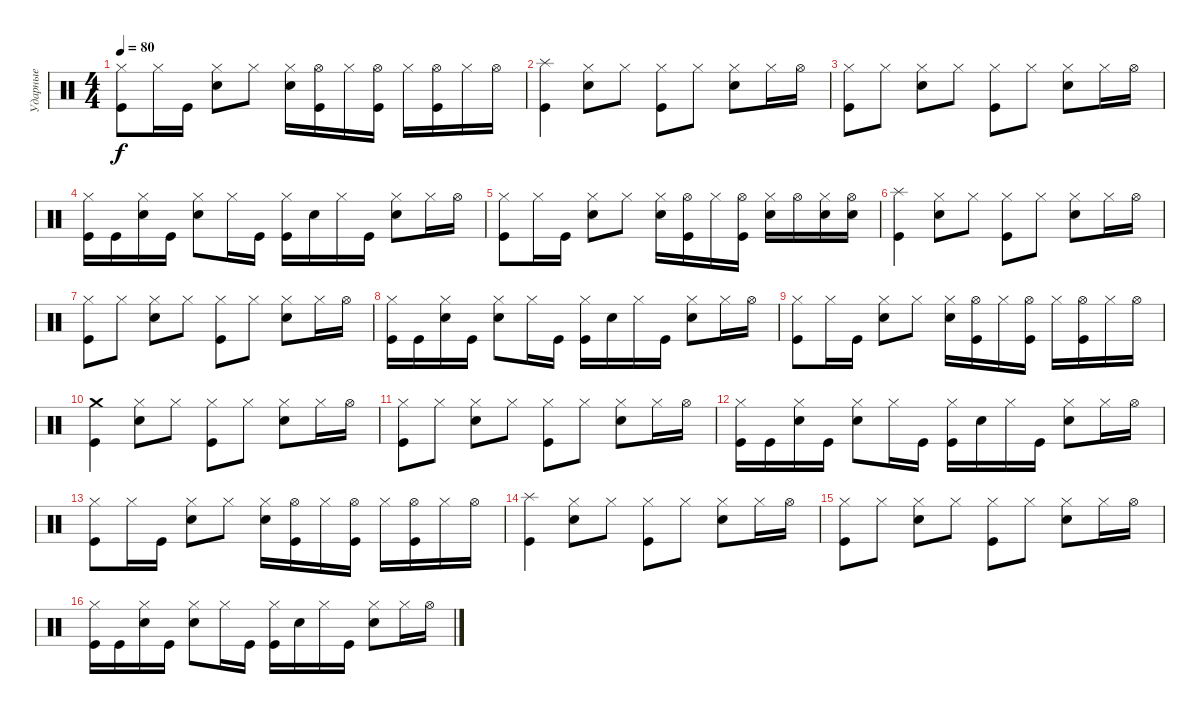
\track ("Ударные" "Ударные") {instrument percussion}
\staff {score}
\articulation defaults
\ts (4 4)
\tempo 80
\clef neutral
\ks c
("Kick (hit)" "Hi-Hat (closed)").8{dy f} "Hi-Hat (closed)".16 "Kick (hit)".16 ("Snare (hit) 2" "Hi-Hat (closed)").8 "Hi-Hat (closed)".8 ("Snare (hit) 2" "Hi-Hat (closed)").16 ("Kick (hit)" "Hi-Hat (open)").16 "Hi-Hat (closed)".16 ("Kick (hit)" "Hi-Hat (open)").16 "Hi-Hat (closed)".16 ("Kick (hit)" "Hi-Hat (open)").16 "Hi-Hat (closed)".16 "Hi-Hat (open)".16 |
("Kick (hit)" "Splash (hit)").4 ("Snare (hit) 2" "Hi-Hat (closed)").8 "Hi-Hat (closed)".8 ("Kick (hit)" "Hi-Hat (closed)").8 "Hi-Hat (closed)".8 ("Snare (hit) 2" "Hi-Hat (closed)").8 "Hi-Hat (closed)".16 "Hi-Hat (open)".16 |
("Kick (hit)" "Hi-Hat (closed)").8 "Hi-Hat (closed)".8 ("Snare (hit) 2" "Hi-Hat (closed)").8 "Hi-Hat (closed)".8 ("Kick (hit)" "Hi-Hat (closed)").8 "Hi-Hat (closed)".8 ("Snare (hit) 2" "Hi-Hat (closed)").8 "Hi-Hat (closed)".16 "Hi-Hat (open)".16 |
("Kick (hit)" "Hi-Hat (closed)").16 "Kick (hit)".16 ("Snare (hit) 2" "Hi-Hat (closed)").16 "Kick (hit)".16 ("Snare (hit) 2" "Hi-Hat (closed)").8 "Hi-Hat (closed)".16 "Kick (hit)".16 ("Kick (hit)" "Hi-Hat (closed)").16 "Snare (hit) 2".16 "Hi-Hat (closed)".16 "Kick (hit)".16 ("Snare (hit) 2" "Hi-Hat (closed)").8 "Hi-Hat (closed)".16 "Hi-Hat (open)".16 |
("Kick (hit)" "Hi-Hat (closed)").8 "Hi-Hat (closed)".16 "Kick (hit)".16 ("Snare (hit) 2" "Hi-Hat (closed)").8 "Hi-Hat (closed)".8 ("Snare (hit) 2" "Hi-Hat (closed)").16 ("Kick (hit)" "Hi-Hat (open)").16 "Hi-Hat (closed)".16 ("Kick (hit)" "Hi-Hat (open)").16 ("Snare (hit) 2" "Hi-Hat (closed)").16 "Hi-Hat (open)".16 ("Snare (hit) 2" "Hi-Hat (closed)").16 ("Snare (hit) 2" "Hi-Hat (open)").16 |
("Kick (hit)" "Splash (hit)").4 ("Snare (hit) 2" "Hi-Hat (closed)").8 "Hi-Hat (closed)".8 ("Kick (hit)" "Hi-Hat (closed)").8 "Hi-Hat (closed)".8 ("Snare (hit) 2" "Hi-Hat (closed)").8 "Hi-Hat (closed)".16 "Hi-Hat (open)".16 |
("Kick (hit)" "Hi-Hat (closed)").8 "Hi-Hat (closed)".8 ("Snare (hit) 2" "Hi-Hat (closed)").8 "Hi-Hat (closed)".8 ("Kick (hit)" "Hi-Hat (closed)").8 "Hi-Hat (closed)".8 ("Snare (hit) 2" "Hi-Hat (closed)").8 "Hi-Hat (closed)".16 "Hi-Hat (open)".16 |
("Kick (hit)" "Hi-Hat (closed)").16 "Kick (hit)".16 ("Snare (hit) 2" "Hi-Hat (closed)").16 "Kick (hit)".16 ("Snare (hit) 2" "Hi-Hat (closed)").8 "Hi-Hat (closed)".16 "Kick (hit)".16 ("Kick (hit)" "Hi-Hat (closed)").16 "Snare (hit) 2".16 "Hi-Hat (closed)".16 "Kick (hit)".16 ("Snare (hit) 2" "Hi-Hat (closed)").8 "Hi-Hat (closed)".16 "Hi-Hat (open)".16 |
("Kick (hit)" "Hi-Hat (closed)").8 "Hi-Hat (closed)".16 "Kick (hit)".16 ("Snare (hit) 2" "Hi-Hat (closed)").8 "Hi-Hat (closed)".8 ("Snare (hit) 2" "Hi-Hat (closed)").16 ("Kick (hit)" "Hi-Hat (open)").16 "Hi-Hat (closed)".16 ("Kick (hit)" "Hi-Hat (open)").16 "Hi-Hat (closed)".16 ("Kick (hit)" "Hi-Hat (open)").16 "Hi-Hat (closed)".16 "Hi-Hat (open)".16 |
("Kick (hit)" "Crash medium (hit)").4 ("Snare (hit) 2" "Hi-Hat (closed)").8 "Hi-Hat (closed)".8 ("Kick (hit)" "Hi-Hat (closed)").8 "Hi-Hat (closed)".8 ("Snare (hit) 2" "Hi-Hat (closed)").8 "Hi-Hat (closed)".16 "Hi-Hat (open)".16 |
("Kick (hit)" "Hi-Hat (closed)").8 "Hi-Hat (closed)".8 ("Snare (hit) 2" "Hi-Hat (closed)").8 "Hi-Hat (closed)".8 ("Kick (hit)" "Hi-Hat (closed)").8 "Hi-Hat (closed)".8 ("Snare (hit) 2" "Hi-Hat (closed)").8 "Hi-Hat (closed)".16 "Hi-Hat (open)".16 |
("Kick (hit)" "Hi-Hat (closed)").16 "Kick (hit)".16 ("Snare (hit) 2" "Hi-Hat (closed)").16 "Kick (hit)".16 ("Snare (hit) 2" "Hi-Hat (closed)").8 "Hi-Hat (closed)".16 "Kick (hit)".16 ("Kick (hit)" "Hi-Hat (closed)").16 "Snare (hit) 2".16 "Hi-Hat (closed)".16 "Kick (hit)".16 ("Snare (hit) 2" "Hi-Hat (closed)").8 "Hi-Hat (closed)".16 "Hi-Hat (open)".16 |
("Kick (hit)" "Hi-Hat (closed)").8 "Hi-Hat (closed)".16 "Kick (hit)".16 ("Snare (hit) 2" "Hi-Hat (closed)").8 "Hi-Hat (closed)".8 ("Snare (hit) 2" "Hi-Hat (closed)").16 ("Kick (hit)" "Hi-Hat (open)").16 "Hi-Hat (closed)".16 ("Kick (hit)" "Hi-Hat (open)").16 "Hi-Hat (closed)".16 ("Kick (hit)" "Hi-Hat (open)").16 "Hi-Hat (closed)".16 "Hi-Hat (open)".16 |
("Kick (hit)" "Splash (hit)").4 ("Snare (hit) 2" "Hi-Hat (closed)").8 "Hi-Hat (closed)".8 ("Kick (hit)" "Hi-Hat (closed)").8 "Hi-Hat (closed)".8 ("Snare (hit) 2" "Hi-Hat (closed)").8 "Hi-Hat (closed)".16 "Hi-Hat (open)".16 |
("Kick (hit)" "Hi-Hat (closed)").8 "Hi-Hat (closed)".8 ("Snare (hit) 2" "Hi-Hat (closed)").8 "Hi-Hat (closed)".8 ("Kick (hit)" "Hi-Hat (closed)").8 "Hi-Hat (closed)".8 ("Snare (hit) 2" "Hi-Hat (closed)").8 "Hi-Hat (closed)".16 "Hi-Hat (open)".16 |
("Kick (hit)" "Hi-Hat (closed)").16 "Kick (hit)".16 ("Snare (hit) 2" "Hi-Hat (closed)").16 "Kick (hit)".16 ("Snare (hit) 2" "Hi-Hat (closed)").8 "Hi-Hat (closed)".16 "Kick (hit)".16 ("Kick (hit)" "Hi-Hat (closed)").16 "Snare (hit) 2".16 "Hi-Hat (closed)".16 "Kick (hit)".16 ("Snare (hit) 2" "Hi-Hat (closed)").8 "Hi-Hat (closed)".16 "Hi-Hat (open)".16
